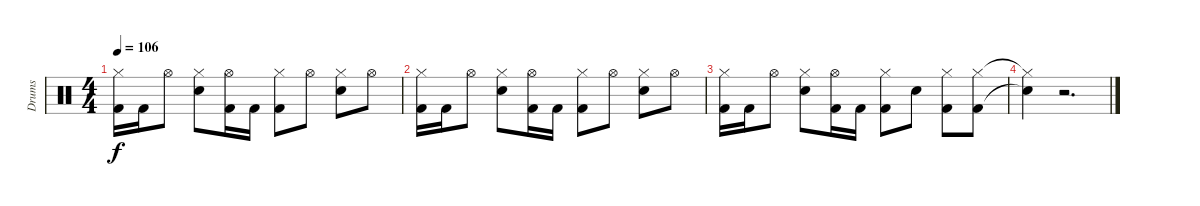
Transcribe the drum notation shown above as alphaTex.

\track ("Drums" "Drums") {instrument percussion}
\staff {score}
\articulation defaults
\ts (4 4)
\tempo 106
\clef neutral
\ks c
("Hi-Hat (closed)" "Kick (hit) 2").16{dy f} "Kick (hit) 2".16 "Hi-Hat (open)".8 ("Hi-Hat (closed)" "Electric Snare (hit)").8 ("Kick (hit) 2" "Hi-Hat (open)").16 "Kick (hit) 2".16 ("Hi-Hat (closed)" "Kick (hit) 2").8 "Hi-Hat (open)".8 ("Hi-Hat (closed)" "Electric Snare (hit)").8 "Hi-Hat (open)".8 |
("Hi-Hat (closed)" "Kick (hit) 2").16 "Kick (hit) 2".16 "Hi-Hat (open)".8 ("Hi-Hat (closed)" "Electric Snare (hit)").8 ("Kick (hit) 2" "Hi-Hat (open)").16 "Kick (hit) 2".16 ("Hi-Hat (closed)" "Kick (hit) 2").8 "Hi-Hat (open)".8 ("Hi-Hat (closed)" "Electric Snare (hit)").8 "Hi-Hat (open)".8 |
("Hi-Hat (closed)" "Kick (hit) 2").16 "Kick (hit) 2".16 "Hi-Hat (open)".8 ("Hi-Hat (closed)" "Electric Snare (hit)").8 ("Kick (hit) 2" "Hi-Hat (open)").16 "Kick (hit) 2".16 ("Hi-Hat (closed)" "Kick (hit) 2").8 "Electric Snare (hit)".8 ("Hi-Hat (closed)" "Kick (hit) 2").8 ("Hi-Hat (closed)" "Kick (hit) 2").8 |
("Hi-Hat (closed)"{t} "Electric Snare (hit)"{t}).4 r.2{d}
